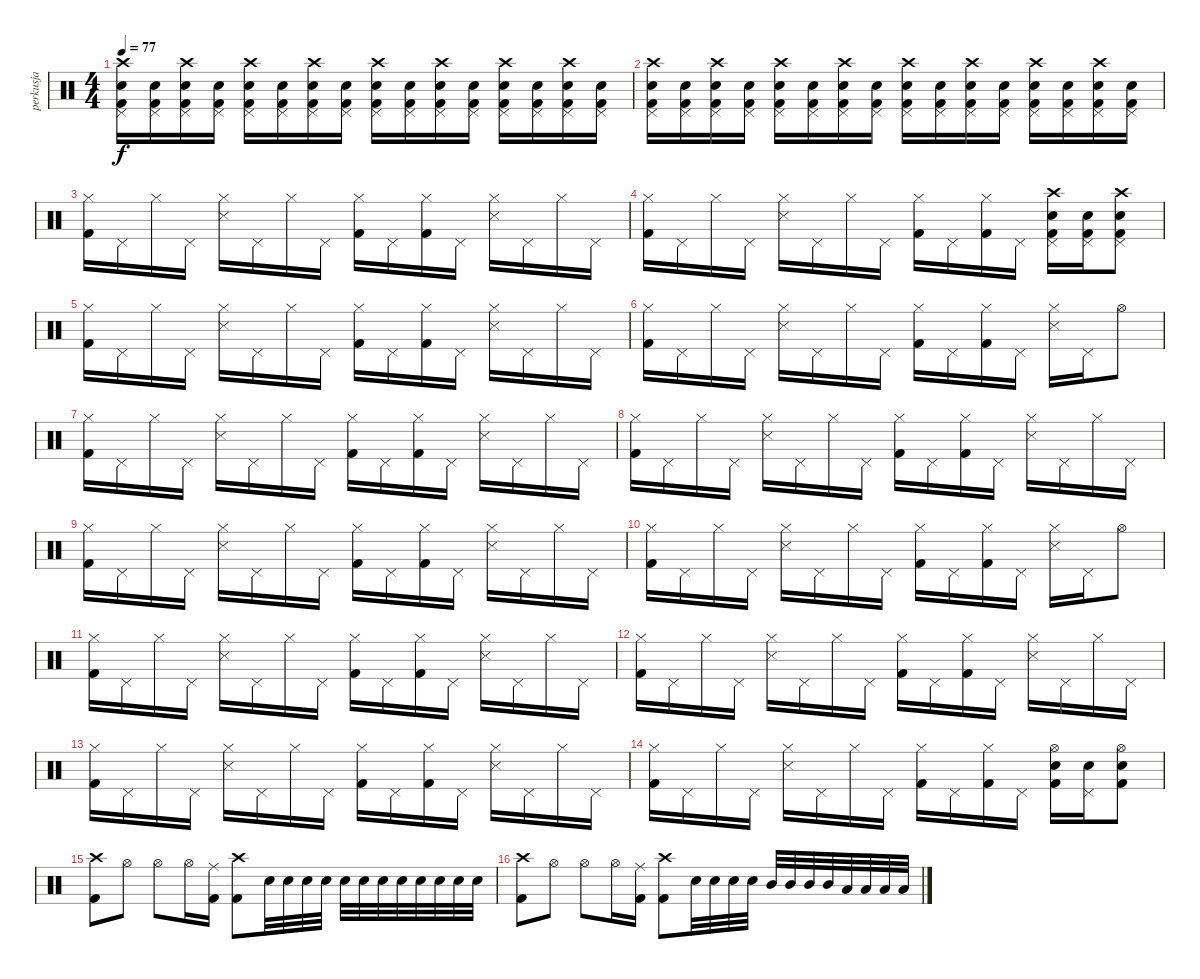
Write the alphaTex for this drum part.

\track ("perkusja" "perkusja") {instrument percussion}
\staff {score}
\articulation defaults
\ts (4 4)
\tempo 77
\clef neutral
\ks c
("Crash high (hit)" "Pedal Hi-Hat (hit)" "Snare (hit) 2" "Kick (hit) 2").16{dy f} ("Pedal Hi-Hat (hit)" "Snare (hit) 2" "Kick (hit) 2").16 ("Crash high (hit)" "Pedal Hi-Hat (hit)" "Snare (hit) 2" "Kick (hit) 2").16 ("Pedal Hi-Hat (hit)" "Snare (hit) 2" "Kick (hit) 2").16 ("Crash high (hit)" "Pedal Hi-Hat (hit)" "Snare (hit) 2" "Kick (hit) 2").16 ("Pedal Hi-Hat (hit)" "Snare (hit) 2" "Kick (hit) 2").16 ("Crash high (hit)" "Pedal Hi-Hat (hit)" "Snare (hit) 2" "Kick (hit) 2").16 ("Pedal Hi-Hat (hit)" "Snare (hit) 2" "Kick (hit) 2").16 ("Crash high (hit)" "Pedal Hi-Hat (hit)" "Snare (hit) 2" "Kick (hit) 2").16 ("Pedal Hi-Hat (hit)" "Snare (hit) 2" "Kick (hit) 2").16 ("Crash high (hit)" "Pedal Hi-Hat (hit)" "Snare (hit) 2" "Kick (hit) 2").16 ("Pedal Hi-Hat (hit)" "Snare (hit) 2" "Kick (hit) 2").16 ("Crash high (hit)" "Pedal Hi-Hat (hit)" "Snare (hit) 2" "Kick (hit) 2").16 ("Pedal Hi-Hat (hit)" "Snare (hit) 2" "Kick (hit) 2").16 ("Crash high (hit)" "Pedal Hi-Hat (hit)" "Snare (hit) 2" "Kick (hit) 2").16 ("Pedal Hi-Hat (hit)" "Snare (hit) 2" "Kick (hit) 2").16 |
("Crash high (hit)" "Pedal Hi-Hat (hit)" "Snare (hit) 2" "Kick (hit) 2").16 ("Pedal Hi-Hat (hit)" "Snare (hit) 2" "Kick (hit) 2").16 ("Crash high (hit)" "Pedal Hi-Hat (hit)" "Snare (hit) 2" "Kick (hit) 2").16 ("Pedal Hi-Hat (hit)" "Snare (hit) 2" "Kick (hit) 2").16 ("Crash high (hit)" "Pedal Hi-Hat (hit)" "Snare (hit) 2" "Kick (hit) 2").16 ("Pedal Hi-Hat (hit)" "Snare (hit) 2" "Kick (hit) 2").16 ("Crash high (hit)" "Pedal Hi-Hat (hit)" "Snare (hit) 2" "Kick (hit) 2").16 ("Pedal Hi-Hat (hit)" "Snare (hit) 2" "Kick (hit) 2").16 ("Crash high (hit)" "Pedal Hi-Hat (hit)" "Snare (hit) 2" "Kick (hit) 2").16 ("Pedal Hi-Hat (hit)" "Snare (hit) 2" "Kick (hit) 2").16 ("Crash high (hit)" "Pedal Hi-Hat (hit)" "Snare (hit) 2" "Kick (hit) 2").16 ("Pedal Hi-Hat (hit)" "Snare (hit) 2" "Kick (hit) 2").16 ("Crash high (hit)" "Pedal Hi-Hat (hit)" "Snare (hit) 2" "Kick (hit) 2").16 ("Pedal Hi-Hat (hit)" "Snare (hit) 2" "Kick (hit) 2").16 ("Crash high (hit)" "Pedal Hi-Hat (hit)" "Snare (hit) 2" "Kick (hit) 2").16 ("Pedal Hi-Hat (hit)" "Snare (hit) 2" "Kick (hit) 2").16 |
("Hi-Hat (closed)" "Kick (hit) 2").16 "Pedal Hi-Hat (hit)".16 "Hi-Hat (closed)".16 "Pedal Hi-Hat (hit)".16 ("Hi-Hat (closed)" "Snare (side stick) 3").16 "Pedal Hi-Hat (hit)".16 "Hi-Hat (closed)".16 "Pedal Hi-Hat (hit)".16 ("Hi-Hat (closed)" "Kick (hit) 2").16 "Pedal Hi-Hat (hit)".16 ("Hi-Hat (closed)" "Kick (hit) 2").16 "Pedal Hi-Hat (hit)".16 ("Hi-Hat (closed)" "Snare (side stick) 3").16 "Pedal Hi-Hat (hit)".16 "Hi-Hat (closed)".16 "Pedal Hi-Hat (hit)".16 |
("Hi-Hat (closed)" "Kick (hit) 2").16 "Pedal Hi-Hat (hit)".16 "Hi-Hat (closed)".16 "Pedal Hi-Hat (hit)".16 ("Hi-Hat (closed)" "Snare (side stick) 3").16 "Pedal Hi-Hat (hit)".16 "Hi-Hat (closed)".16 "Pedal Hi-Hat (hit)".16 ("Hi-Hat (closed)" "Kick (hit) 2").16 "Pedal Hi-Hat (hit)".16 ("Hi-Hat (closed)" "Kick (hit) 2").16 "Pedal Hi-Hat (hit)".16 ("Crash high (hit)" "Pedal Hi-Hat (hit)" "Snare (hit) 2" "Kick (hit) 2").16 ("Pedal Hi-Hat (hit)" "Snare (hit) 2" "Kick (hit) 2").16 ("Crash high (hit)" "Pedal Hi-Hat (hit)" "Snare (hit) 2" "Kick (hit) 2").8 |
("Hi-Hat (closed)" "Kick (hit) 2").16 "Pedal Hi-Hat (hit)".16 "Hi-Hat (closed)".16 "Pedal Hi-Hat (hit)".16 ("Hi-Hat (closed)" "Snare (side stick) 3").16 "Pedal Hi-Hat (hit)".16 "Hi-Hat (closed)".16 "Pedal Hi-Hat (hit)".16 ("Hi-Hat (closed)" "Kick (hit) 2").16 "Pedal Hi-Hat (hit)".16 ("Hi-Hat (closed)" "Kick (hit) 2").16 "Pedal Hi-Hat (hit)".16 ("Hi-Hat (closed)" "Snare (side stick) 3").16 "Pedal Hi-Hat (hit)".16 "Hi-Hat (closed)".16 "Pedal Hi-Hat (hit)".16 |
("Hi-Hat (closed)" "Kick (hit) 2").16 "Pedal Hi-Hat (hit)".16 "Hi-Hat (closed)".16 "Pedal Hi-Hat (hit)".16 ("Hi-Hat (closed)" "Snare (side stick) 3").16 "Pedal Hi-Hat (hit)".16 "Hi-Hat (closed)".16 "Pedal Hi-Hat (hit)".16 ("Hi-Hat (closed)" "Kick (hit) 2").16 "Pedal Hi-Hat (hit)".16 ("Hi-Hat (closed)" "Kick (hit) 2").16 "Pedal Hi-Hat (hit)".16 ("Hi-Hat (closed)" "Snare (side stick) 3").16 "Pedal Hi-Hat (hit)".16 "Hi-Hat (open)".8 |
("Hi-Hat (closed)" "Kick (hit) 2").16 "Pedal Hi-Hat (hit)".16 "Hi-Hat (closed)".16 "Pedal Hi-Hat (hit)".16 ("Hi-Hat (closed)" "Snare (side stick) 3").16 "Pedal Hi-Hat (hit)".16 "Hi-Hat (closed)".16 "Pedal Hi-Hat (hit)".16 ("Hi-Hat (closed)" "Kick (hit) 2").16 "Pedal Hi-Hat (hit)".16 ("Hi-Hat (closed)" "Kick (hit) 2").16 "Pedal Hi-Hat (hit)".16 ("Hi-Hat (closed)" "Snare (side stick) 3").16 "Pedal Hi-Hat (hit)".16 "Hi-Hat (closed)".16 "Pedal Hi-Hat (hit)".16 |
("Hi-Hat (closed)" "Kick (hit) 2").16 "Pedal Hi-Hat (hit)".16 "Hi-Hat (closed)".16 "Pedal Hi-Hat (hit)".16 ("Hi-Hat (closed)" "Snare (side stick) 3").16 "Pedal Hi-Hat (hit)".16 "Hi-Hat (closed)".16 "Pedal Hi-Hat (hit)".16 ("Hi-Hat (closed)" "Kick (hit) 2").16 "Pedal Hi-Hat (hit)".16 ("Hi-Hat (closed)" "Kick (hit) 2").16 "Pedal Hi-Hat (hit)".16 ("Hi-Hat (closed)" "Snare (side stick) 3").16 "Pedal Hi-Hat (hit)".16 "Hi-Hat (closed)".16 "Pedal Hi-Hat (hit)".16 |
("Hi-Hat (closed)" "Kick (hit) 2").16 "Pedal Hi-Hat (hit)".16 "Hi-Hat (closed)".16 "Pedal Hi-Hat (hit)".16 ("Hi-Hat (closed)" "Snare (side stick) 3").16 "Pedal Hi-Hat (hit)".16 "Hi-Hat (closed)".16 "Pedal Hi-Hat (hit)".16 ("Hi-Hat (closed)" "Kick (hit) 2").16 "Pedal Hi-Hat (hit)".16 ("Hi-Hat (closed)" "Kick (hit) 2").16 "Pedal Hi-Hat (hit)".16 ("Hi-Hat (closed)" "Snare (side stick) 3").16 "Pedal Hi-Hat (hit)".16 "Hi-Hat (closed)".16 "Pedal Hi-Hat (hit)".16 |
("Hi-Hat (closed)" "Kick (hit) 2").16 "Pedal Hi-Hat (hit)".16 "Hi-Hat (closed)".16 "Pedal Hi-Hat (hit)".16 ("Hi-Hat (closed)" "Snare (side stick) 3").16 "Pedal Hi-Hat (hit)".16 "Hi-Hat (closed)".16 "Pedal Hi-Hat (hit)".16 ("Hi-Hat (closed)" "Kick (hit) 2").16 "Pedal Hi-Hat (hit)".16 ("Hi-Hat (closed)" "Kick (hit) 2").16 "Pedal Hi-Hat (hit)".16 ("Hi-Hat (closed)" "Snare (side stick) 3").16 "Pedal Hi-Hat (hit)".16 "Hi-Hat (open)".8 |
("Hi-Hat (closed)" "Kick (hit) 2").16 "Pedal Hi-Hat (hit)".16 "Hi-Hat (closed)".16 "Pedal Hi-Hat (hit)".16 ("Hi-Hat (closed)" "Snare (side stick) 3").16 "Pedal Hi-Hat (hit)".16 "Hi-Hat (closed)".16 "Pedal Hi-Hat (hit)".16 ("Hi-Hat (closed)" "Kick (hit) 2").16 "Pedal Hi-Hat (hit)".16 ("Hi-Hat (closed)" "Kick (hit) 2").16 "Pedal Hi-Hat (hit)".16 ("Hi-Hat (closed)" "Snare (side stick) 3").16 "Pedal Hi-Hat (hit)".16 "Hi-Hat (closed)".16 "Pedal Hi-Hat (hit)".16 |
("Hi-Hat (closed)" "Kick (hit) 2").16 "Pedal Hi-Hat (hit)".16 "Hi-Hat (closed)".16 "Pedal Hi-Hat (hit)".16 ("Hi-Hat (closed)" "Snare (side stick) 3").16 "Pedal Hi-Hat (hit)".16 "Hi-Hat (closed)".16 "Pedal Hi-Hat (hit)".16 ("Hi-Hat (closed)" "Kick (hit) 2").16 "Pedal Hi-Hat (hit)".16 ("Hi-Hat (closed)" "Kick (hit) 2").16 "Pedal Hi-Hat (hit)".16 ("Hi-Hat (closed)" "Snare (side stick) 3").16 "Pedal Hi-Hat (hit)".16 "Hi-Hat (closed)".16 "Pedal Hi-Hat (hit)".16 |
("Hi-Hat (closed)" "Kick (hit) 2").16 "Pedal Hi-Hat (hit)".16 "Hi-Hat (closed)".16 "Pedal Hi-Hat (hit)".16 ("Hi-Hat (closed)" "Snare (side stick) 3").16 "Pedal Hi-Hat (hit)".16 "Hi-Hat (closed)".16 "Pedal Hi-Hat (hit)".16 ("Hi-Hat (closed)" "Kick (hit) 2").16 "Pedal Hi-Hat (hit)".16 ("Hi-Hat (closed)" "Kick (hit) 2").16 "Pedal Hi-Hat (hit)".16 ("Hi-Hat (closed)" "Snare (side stick) 3").16 "Pedal Hi-Hat (hit)".16 "Hi-Hat (closed)".16 "Pedal Hi-Hat (hit)".16 |
("Hi-Hat (closed)" "Kick (hit) 2").16 "Pedal Hi-Hat (hit)".16 "Hi-Hat (closed)".16 "Pedal Hi-Hat (hit)".16 ("Hi-Hat (closed)" "Snare (side stick) 3").16 "Pedal Hi-Hat (hit)".16 "Hi-Hat (closed)".16 "Pedal Hi-Hat (hit)".16 ("Hi-Hat (closed)" "Kick (hit) 2").16 "Pedal Hi-Hat (hit)".16 ("Hi-Hat (closed)" "Kick (hit) 2").16 "Pedal Hi-Hat (hit)".16 ("Hi-Hat (open)" "Snare (hit) 2" "Kick (hit) 2").16 ("Pedal Hi-Hat (hit)" "Snare (hit) 2").16 ("Hi-Hat (open)" "Snare (hit) 2" "Kick (hit) 2").8 |
("Crash high (hit)" "Kick (hit) 2").8 "Hi-Hat (open)".8 "Hi-Hat (open)".8 "Hi-Hat (open)".16 ("Ride (middle)" "Kick (hit) 2").16 ("Crash high (hit)" "Kick (hit) 2").8 "Snare (hit) 2".32 "Snare (hit) 2".32 "Snare (hit) 2".32 "Snare (hit) 2".32 "Snare (hit) 2".32 "Snare (hit) 2".32 "Snare (hit) 2".32 "Snare (hit) 2".32 "Snare (hit) 2".32 "Snare (hit) 2".32 "Snare (hit) 2".32 "Snare (hit) 2".32 |
("Crash high (hit)" "Kick (hit) 2").8 "Hi-Hat (open)".8 "Hi-Hat (open)".8 "Hi-Hat (open)".16 ("Ride (middle)" "Kick (hit) 2").16 ("Crash high (hit)" "Kick (hit) 2").8 "Snare (hit) 2".32 "Snare (hit) 2".32 "Snare (hit) 2".32 "Snare (hit) 2".32 "Mid Tom (hit)".32 "Mid Tom (hit)".32 "Mid Tom (hit)".32 "Mid Tom (hit)".32 "Low Tom (hit)".32 "Low Tom (hit)".32 "Low Tom (hit)".32 "Low Tom (hit)".32
